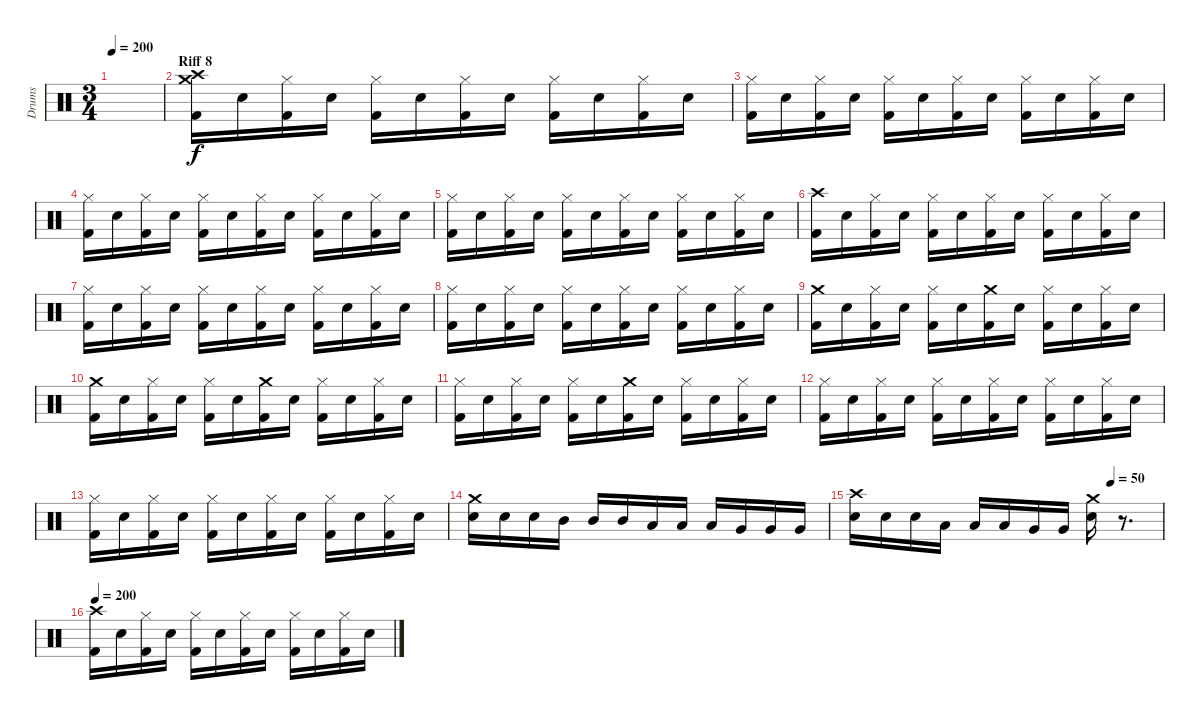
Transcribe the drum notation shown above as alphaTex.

\track ("Drums" "Drums") {instrument percussion}
\staff {score}
\articulation defaults
\ts (3 4)
\tempo 200
\clef neutral
\ks c
|
\section ("" "Riff 8")
("Crash medium (hit)" "Crash high (hit)" "Kick (hit) 2").16 "Electric Snare (hit)".16 ("Hi-Hat (closed)" "Kick (hit) 2").16 "Electric Snare (hit)".16 ("Hi-Hat (closed)" "Kick (hit) 2").16 "Electric Snare (hit)".16 ("Hi-Hat (closed)" "Kick (hit) 2").16 "Electric Snare (hit)".16 ("Hi-Hat (closed)" "Kick (hit) 2").16 "Electric Snare (hit)".16 ("Hi-Hat (closed)" "Kick (hit) 2").16 "Electric Snare (hit)".16 |
("Hi-Hat (closed)" "Kick (hit) 2").16 "Electric Snare (hit)".16 ("Hi-Hat (closed)" "Kick (hit) 2").16 "Electric Snare (hit)".16 ("Hi-Hat (closed)" "Kick (hit) 2").16 "Electric Snare (hit)".16 ("Hi-Hat (closed)" "Kick (hit) 2").16 "Electric Snare (hit)".16 ("Hi-Hat (closed)" "Kick (hit) 2").16 "Electric Snare (hit)".16 ("Hi-Hat (closed)" "Kick (hit) 2").16 "Electric Snare (hit)".16 |
("Hi-Hat (closed)" "Kick (hit) 2").16 "Electric Snare (hit)".16 ("Hi-Hat (closed)" "Kick (hit) 2").16 "Electric Snare (hit)".16 ("Hi-Hat (closed)" "Kick (hit) 2").16 "Electric Snare (hit)".16 ("Hi-Hat (closed)" "Kick (hit) 2").16 "Electric Snare (hit)".16 ("Hi-Hat (closed)" "Kick (hit) 2").16 "Electric Snare (hit)".16 ("Hi-Hat (closed)" "Kick (hit) 2").16 "Electric Snare (hit)".16 |
("Hi-Hat (closed)" "Kick (hit) 2").16 "Electric Snare (hit)".16 ("Hi-Hat (closed)" "Kick (hit) 2").16 "Electric Snare (hit)".16 ("Hi-Hat (closed)" "Kick (hit) 2").16 "Electric Snare (hit)".16 ("Hi-Hat (closed)" "Kick (hit) 2").16 "Electric Snare (hit)".16 ("Hi-Hat (closed)" "Kick (hit) 2").16 "Electric Snare (hit)".16 ("Hi-Hat (closed)" "Kick (hit) 2").16 "Electric Snare (hit)".16 |
("Crash high (hit)" "Kick (hit) 2").16 "Electric Snare (hit)".16 ("Hi-Hat (closed)" "Kick (hit) 2").16 "Electric Snare (hit)".16 ("Hi-Hat (closed)" "Kick (hit) 2").16 "Electric Snare (hit)".16 ("Hi-Hat (closed)" "Kick (hit) 2").16 "Electric Snare (hit)".16 ("Hi-Hat (closed)" "Kick (hit) 2").16 "Electric Snare (hit)".16 ("Hi-Hat (closed)" "Kick (hit) 2").16 "Electric Snare (hit)".16 |
("Hi-Hat (closed)" "Kick (hit) 2").16 "Electric Snare (hit)".16 ("Hi-Hat (closed)" "Kick (hit) 2").16 "Electric Snare (hit)".16 ("Hi-Hat (closed)" "Kick (hit) 2").16 "Electric Snare (hit)".16 ("Hi-Hat (closed)" "Kick (hit) 2").16 "Electric Snare (hit)".16 ("Hi-Hat (closed)" "Kick (hit) 2").16 "Electric Snare (hit)".16 ("Hi-Hat (closed)" "Kick (hit) 2").16 "Electric Snare (hit)".16 |
("Hi-Hat (closed)" "Kick (hit) 2").16 "Electric Snare (hit)".16 ("Hi-Hat (closed)" "Kick (hit) 2").16 "Electric Snare (hit)".16 ("Hi-Hat (closed)" "Kick (hit) 2").16 "Electric Snare (hit)".16 ("Hi-Hat (closed)" "Kick (hit) 2").16 "Electric Snare (hit)".16 ("Hi-Hat (closed)" "Kick (hit) 2").16 "Electric Snare (hit)".16 ("Hi-Hat (closed)" "Kick (hit) 2").16 "Electric Snare (hit)".16 |
("Crash medium (hit)" "Kick (hit) 2").16 "Electric Snare (hit)".16 ("Hi-Hat (closed)" "Kick (hit) 2").16 "Electric Snare (hit)".16 ("Hi-Hat (closed)" "Kick (hit) 2").16 "Electric Snare (hit)".16 ("Crash medium (hit)" "Kick (hit) 2").16 "Electric Snare (hit)".16 ("Hi-Hat (closed)" "Kick (hit) 2").16 "Electric Snare (hit)".16 ("Hi-Hat (closed)" "Kick (hit) 2").16 "Electric Snare (hit)".16 |
("Crash medium (hit)" "Kick (hit) 2").16 "Electric Snare (hit)".16 ("Hi-Hat (closed)" "Kick (hit) 2").16 "Electric Snare (hit)".16 ("Hi-Hat (closed)" "Kick (hit) 2").16 "Electric Snare (hit)".16 ("Crash medium (hit)" "Kick (hit) 2").16 "Electric Snare (hit)".16 ("Hi-Hat (closed)" "Kick (hit) 2").16 "Electric Snare (hit)".16 ("Hi-Hat (closed)" "Kick (hit) 2").16 "Electric Snare (hit)".16 |
("Hi-Hat (closed)" "Kick (hit) 2").16 "Electric Snare (hit)".16 ("Hi-Hat (closed)" "Kick (hit) 2").16 "Electric Snare (hit)".16 ("Hi-Hat (closed)" "Kick (hit) 2").16 "Electric Snare (hit)".16 ("Crash medium (hit)" "Kick (hit) 2").16 "Electric Snare (hit)".16 ("Hi-Hat (closed)" "Kick (hit) 2").16 "Electric Snare (hit)".16 ("Hi-Hat (closed)" "Kick (hit) 2").16 "Electric Snare (hit)".16 |
("Hi-Hat (closed)" "Kick (hit) 2").16 "Electric Snare (hit)".16 ("Hi-Hat (closed)" "Kick (hit) 2").16 "Electric Snare (hit)".16 ("Hi-Hat (closed)" "Kick (hit) 2").16 "Electric Snare (hit)".16 ("Hi-Hat (closed)" "Kick (hit) 2").16 "Electric Snare (hit)".16 ("Hi-Hat (closed)" "Kick (hit) 2").16 "Electric Snare (hit)".16 ("Hi-Hat (closed)" "Kick (hit) 2").16 "Electric Snare (hit)".16 |
("Hi-Hat (closed)" "Kick (hit) 2").16 "Electric Snare (hit)".16 ("Hi-Hat (closed)" "Kick (hit) 2").16 "Electric Snare (hit)".16 ("Hi-Hat (closed)" "Kick (hit) 2").16 "Electric Snare (hit)".16 ("Hi-Hat (closed)" "Kick (hit) 2").16 "Electric Snare (hit)".16 ("Hi-Hat (closed)" "Kick (hit) 2").16 "Electric Snare (hit)".16 ("Hi-Hat (closed)" "Kick (hit) 2").16 "Electric Snare (hit)".16 |
("Crash medium (hit)" "Electric Snare (hit)").16 "Electric Snare (hit)".16 "Electric Snare (hit)".16 "Mid Tom (hit)".16 "Mid Tom (hit)".16 "Mid Tom (hit)".16 "Low Tom (hit)".16 "Low Tom (hit)".16 "Low Tom (hit)".16 "Very Low Tom (hit)".16 "Very Low Tom (hit)".16 "Very Low Tom (hit)".16 |
\tempo (50 0.8333333333333334)
("Crash high (hit)" "Electric Snare (hit)").16 "Electric Snare (hit)".16 "Electric Snare (hit)".16 "Low Tom (hit)".16 "Low Tom (hit)".16 "Low Tom (hit)".16 "Very Low Tom (hit)".16 "Very Low Tom (hit)".16 ("Crash medium (hit)" "Electric Snare (hit)").16 r.8{d} |
\tempo 200
("Crash high (hit)" "Kick (hit) 2").16 "Electric Snare (hit)".16 ("Hi-Hat (closed)" "Kick (hit) 2").16 "Electric Snare (hit)".16 ("Hi-Hat (closed)" "Kick (hit) 2").16 "Electric Snare (hit)".16 ("Hi-Hat (closed)" "Kick (hit) 2").16 "Electric Snare (hit)".16 ("Hi-Hat (closed)" "Kick (hit) 2").16 "Electric Snare (hit)".16 ("Hi-Hat (closed)" "Kick (hit) 2").16 "Electric Snare (hit)".16
